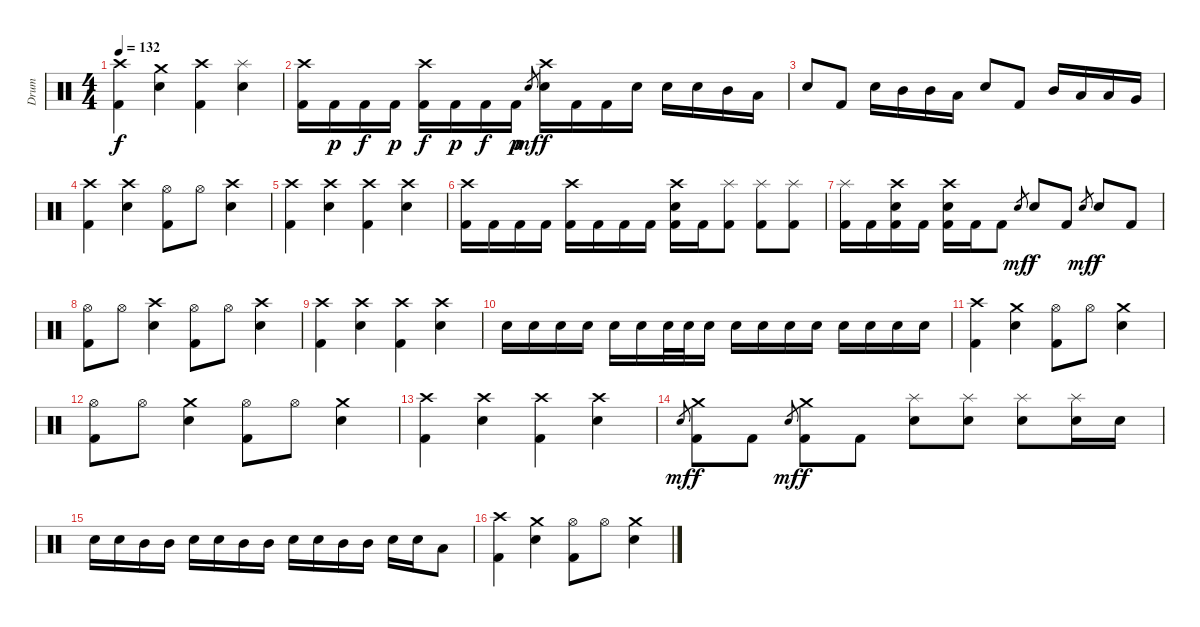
\track ("Drum" "Drum") {instrument percussion}
\staff {score}
\articulation defaults
\ts (4 4)
\tempo 132
\clef neutral
\ks c
("Crash high (hit)" "Kick (hit) 2").4{dy f} ("Crash medium (hit)" "Snare (hit) 2").4 ("Crash high (hit)" "Kick (hit) 2").4 ("Splash (hit)" "Snare (hit) 2").4 |
("Crash high (hit)" "Kick (hit) 2").16 "Kick (hit) 2".16{dy p} "Kick (hit) 2".16{dy f} "Kick (hit) 2".16{dy p} ("Crash high (hit)" "Kick (hit) 2").16{dy f} "Kick (hit) 2".16{dy p} "Kick (hit) 2".16{dy f} "Kick (hit) 2".16{dy p} "Snare (hit)".8{gr dy mf} ("Crash high (hit)" "Snare (hit) 2").16{dy f} "Kick (hit) 2".16 "Kick (hit) 2".16 "Snare (hit) 2".16 "Snare (hit) 2".16 "Snare (hit) 2".16 "Mid Tom (hit)".16 "Low Tom (hit)".16 |
"Snare (hit) 2".8 "Kick (hit) 2".8 "Snare (hit) 2".16 "Mid Tom (hit)".16 "Mid Tom (hit)".16 "Low Tom (hit)".16 "Snare (hit) 2".8 "Kick (hit) 2".8 "Mid Tom (hit)".16 "Low Tom (hit)".16 "Low Tom (hit)".16 "Very Low Tom (hit)".16 |
("Crash high (hit)" "Kick (hit) 2").4 ("Crash high (hit)" "Snare (hit) 2").4 ("Hi-Hat (open)" "Kick (hit) 2").8 "Hi-Hat (open)".8 ("Crash high (hit)" "Snare (hit) 2").4 |
("Crash high (hit)" "Kick (hit) 2").4 ("Crash high (hit)" "Snare (hit) 2").4 ("Crash high (hit)" "Kick (hit) 2").4 ("Crash high (hit)" "Snare (hit) 2").4 |
("Crash high (hit)" "Kick (hit) 2").16 "Kick (hit) 2".16 "Kick (hit) 2".16 "Kick (hit) 2".16 ("Crash high (hit)" "Kick (hit) 2").16 "Kick (hit) 2".16 "Kick (hit) 2".16 "Kick (hit) 2".16 ("Crash high (hit)" "Snare (hit) 2" "Kick (hit) 2").16 "Kick (hit) 2".16 ("Splash (hit)" "Kick (hit) 2").8 ("Splash (hit)" "Kick (hit) 2").8 ("Splash (hit)" "Kick (hit) 2").8 |
("Splash (hit)" "Kick (hit) 2").16 "Kick (hit) 2".16 ("Crash high (hit)" "Snare (hit) 2" "Kick (hit) 2").16 "Kick (hit) 2".16 ("Crash high (hit)" "Snare (hit) 2" "Kick (hit) 2").16 "Kick (hit) 2".16 "Kick (hit) 2".8 "Snare (hit)".8{gr dy mf} "Snare (hit) 2".8{dy f} "Kick (hit) 2".8 "Snare (hit)".8{gr dy mf} "Snare (hit) 2".8{dy f} "Kick (hit) 2".8 |
("Hi-Hat (open)" "Kick (hit) 2").8 "Hi-Hat (open)".8 ("Crash high (hit)" "Snare (hit) 2").4 ("Hi-Hat (open)" "Kick (hit) 2").8 "Hi-Hat (open)".8 ("Crash high (hit)" "Snare (hit) 2").4 |
("Crash high (hit)" "Kick (hit) 2").4 ("Crash high (hit)" "Snare (hit) 2").4 ("Crash high (hit)" "Kick (hit) 2").4 ("Crash high (hit)" "Snare (hit) 2").4 |
"Snare (hit) 2".16 "Snare (hit) 2".16 "Snare (hit) 2".16 "Snare (hit) 2".16 "Snare (hit) 2".16 "Snare (hit) 2".16 "Snare (hit) 2".32 "Snare (hit) 2".32 "Snare (hit) 2".16 "Snare (hit) 2".16 "Snare (hit) 2".16 "Snare (hit) 2".16 "Snare (hit) 2".16 "Snare (hit) 2".16 "Snare (hit) 2".16 "Snare (hit) 2".16 "Snare (hit) 2".16 |
("Crash high (hit)" "Kick (hit) 2").4 ("Crash medium (hit)" "Snare (hit) 2").4 ("Hi-Hat (open)" "Kick (hit) 2").8 "Hi-Hat (open)".8 ("Crash medium (hit)" "Snare (hit) 2").4 |
("Hi-Hat (open)" "Kick (hit) 2").8 "Hi-Hat (open)".8 ("Crash medium (hit)" "Snare (hit) 2").4 ("Hi-Hat (open)" "Kick (hit) 2").8 "Hi-Hat (open)".8 ("Crash medium (hit)" "Snare (hit) 2").4 |
("Crash high (hit)" "Kick (hit) 2").4 ("Crash high (hit)" "Snare (hit) 2").4 ("Crash high (hit)" "Kick (hit) 2").4 ("Crash high (hit)" "Snare (hit) 2").4 |
"Snare (hit)".8{gr dy mf} ("Crash medium (hit)" "Kick (hit) 2").8{dy f} "Kick (hit) 2".8 "Snare (hit)".8{gr dy mf} ("Crash medium (hit)" "Kick (hit) 2").8{dy f} "Kick (hit) 2".8 ("Splash (hit)" "Snare (hit) 2").8 ("Splash (hit)" "Snare (hit) 2").8 ("Splash (hit)" "Snare (hit) 2").8 ("Splash (hit)" "Snare (hit) 2").16 "Snare (hit) 2".16 |
"Snare (hit) 2".16 "Snare (hit) 2".16 "Mid Tom (hit)".16 "Mid Tom (hit)".16 "Snare (hit) 2".16 "Snare (hit) 2".16 "Mid Tom (hit)".16 "Mid Tom (hit)".16 "Snare (hit) 2".16 "Snare (hit) 2".16 "Mid Tom (hit)".16 "Mid Tom (hit)".16 "Snare (hit) 2".16 "Snare (hit) 2".16 "Low Tom (hit)".8 |
("Crash high (hit)" "Kick (hit) 2").4 ("Crash medium (hit)" "Snare (hit) 2").4 ("Hi-Hat (open)" "Kick (hit) 2").8 "Hi-Hat (open)".8 ("Crash medium (hit)" "Snare (hit) 2").4
